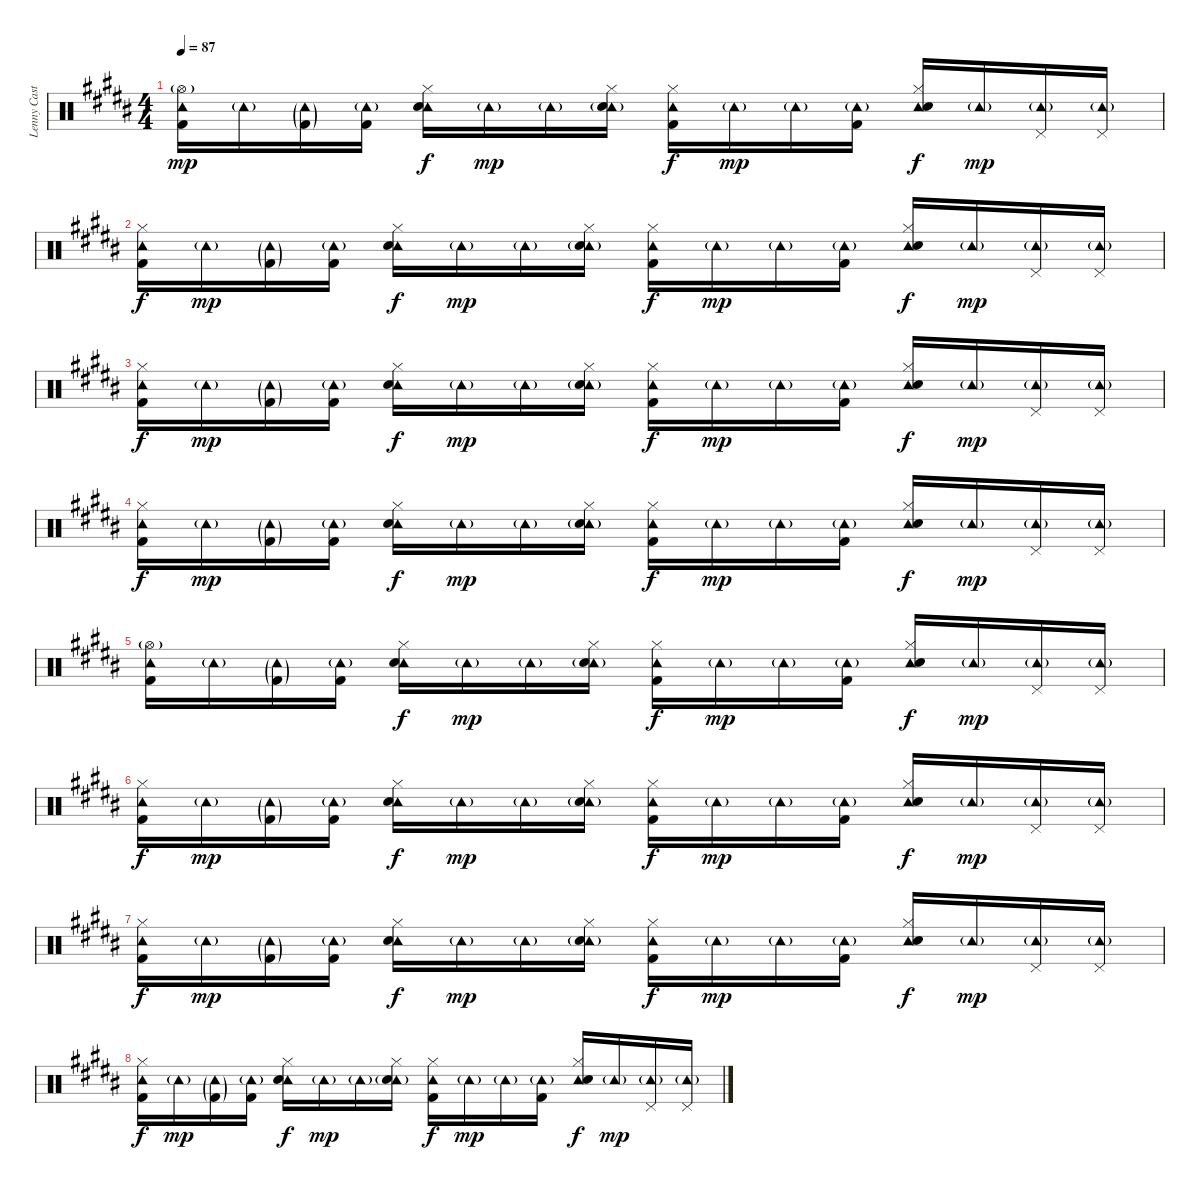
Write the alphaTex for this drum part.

\track ("Lenny Castro (Drums)" "Lenny Cast") {instrument percussion}
\staff {score}
\articulation defaults
\ts (4 4)
\tempo 87
\clef neutral
\ks b
("Hi-Hat (open)"{g} "Tambourine (hit)" "Kick (hit) 2").16{dy mp} "Tambourine (hit)"{g}.16 ("Tambourine (hit)"{g} "Kick (hit) 2"{g}).16 ("Tambourine (hit)"{g} "Kick (hit) 2").16 ("Hi-Hat (closed)" "Tambourine (hit)" "Electric Snare (hit)").16{dy f} "Tambourine (hit)"{g}.16{dy mp} "Tambourine (hit)"{g}.16 ("Hi-Hat (closed)" "Tambourine (hit)"{g} "Electric Snare (hit)"{g}).16 ("Hi-Hat (closed)" "Tambourine (hit)" "Kick (hit) 2").16{dy f} "Tambourine (hit)"{g}.16{dy mp} "Tambourine (hit)"{g}.16 ("Tambourine (hit)"{g} "Kick (hit) 2").16 ("Hi-Hat (closed)" "Tambourine (hit)" "Electric Snare (hit)").16{dy f} "Tambourine (hit)"{g}.16{dy mp} ("Pedal Hi-Hat (hit)" "Tambourine (hit)"{g}).16 ("Pedal Hi-Hat (hit)" "Tambourine (hit)"{g}).16 |
("Hi-Hat (closed)" "Tambourine (hit)" "Kick (hit) 2").16{dy f} "Tambourine (hit)"{g}.16{dy mp} ("Tambourine (hit)"{g} "Kick (hit) 2"{g}).16 ("Tambourine (hit)"{g} "Kick (hit) 2").16 ("Hi-Hat (closed)" "Tambourine (hit)" "Electric Snare (hit)").16{dy f} "Tambourine (hit)"{g}.16{dy mp} "Tambourine (hit)"{g}.16 ("Hi-Hat (closed)" "Tambourine (hit)"{g} "Electric Snare (hit)"{g}).16 ("Hi-Hat (closed)" "Tambourine (hit)" "Kick (hit) 2").16{dy f} "Tambourine (hit)"{g}.16{dy mp} "Tambourine (hit)"{g}.16 ("Tambourine (hit)"{g} "Kick (hit) 2").16 ("Hi-Hat (closed)" "Tambourine (hit)" "Electric Snare (hit)").16{dy f} "Tambourine (hit)"{g}.16{dy mp} ("Pedal Hi-Hat (hit)" "Tambourine (hit)"{g}).16 ("Pedal Hi-Hat (hit)" "Tambourine (hit)"{g}).16 |
("Hi-Hat (closed)" "Tambourine (hit)" "Kick (hit) 2").16{dy f} "Tambourine (hit)"{g}.16{dy mp} ("Tambourine (hit)"{g} "Kick (hit) 2"{g}).16 ("Tambourine (hit)"{g} "Kick (hit) 2").16 ("Hi-Hat (closed)" "Tambourine (hit)" "Electric Snare (hit)").16{dy f} "Tambourine (hit)"{g}.16{dy mp} "Tambourine (hit)"{g}.16 ("Hi-Hat (closed)" "Tambourine (hit)"{g} "Electric Snare (hit)"{g}).16 ("Hi-Hat (closed)" "Tambourine (hit)" "Kick (hit) 2").16{dy f} "Tambourine (hit)"{g}.16{dy mp} "Tambourine (hit)"{g}.16 ("Tambourine (hit)"{g} "Kick (hit) 2").16 ("Hi-Hat (closed)" "Tambourine (hit)" "Electric Snare (hit)").16{dy f} "Tambourine (hit)"{g}.16{dy mp} ("Pedal Hi-Hat (hit)" "Tambourine (hit)"{g}).16 ("Pedal Hi-Hat (hit)" "Tambourine (hit)"{g}).16 |
("Hi-Hat (closed)" "Tambourine (hit)" "Kick (hit) 2").16{dy f} "Tambourine (hit)"{g}.16{dy mp} ("Tambourine (hit)"{g} "Kick (hit) 2"{g}).16 ("Tambourine (hit)"{g} "Kick (hit) 2").16 ("Hi-Hat (closed)" "Tambourine (hit)" "Electric Snare (hit)").16{dy f} "Tambourine (hit)"{g}.16{dy mp} "Tambourine (hit)"{g}.16 ("Hi-Hat (closed)" "Tambourine (hit)"{g} "Electric Snare (hit)"{g}).16 ("Hi-Hat (closed)" "Tambourine (hit)" "Kick (hit) 2").16{dy f} "Tambourine (hit)"{g}.16{dy mp} "Tambourine (hit)"{g}.16 ("Tambourine (hit)"{g} "Kick (hit) 2").16 ("Hi-Hat (closed)" "Tambourine (hit)" "Electric Snare (hit)").16{dy f} "Tambourine (hit)"{g}.16{dy mp} ("Pedal Hi-Hat (hit)" "Tambourine (hit)"{g}).16 ("Pedal Hi-Hat (hit)" "Tambourine (hit)"{g}).16 |
("Hi-Hat (open)"{g} "Tambourine (hit)" "Kick (hit) 2").16 "Tambourine (hit)"{g}.16 ("Tambourine (hit)"{g} "Kick (hit) 2"{g}).16 ("Tambourine (hit)"{g} "Kick (hit) 2").16 ("Hi-Hat (closed)" "Tambourine (hit)" "Electric Snare (hit)").16{dy f} "Tambourine (hit)"{g}.16{dy mp} "Tambourine (hit)"{g}.16 ("Hi-Hat (closed)" "Tambourine (hit)"{g} "Electric Snare (hit)"{g}).16 ("Hi-Hat (closed)" "Tambourine (hit)" "Kick (hit) 2").16{dy f} "Tambourine (hit)"{g}.16{dy mp} "Tambourine (hit)"{g}.16 ("Tambourine (hit)"{g} "Kick (hit) 2").16 ("Hi-Hat (closed)" "Tambourine (hit)" "Electric Snare (hit)").16{dy f} "Tambourine (hit)"{g}.16{dy mp} ("Pedal Hi-Hat (hit)" "Tambourine (hit)"{g}).16 ("Pedal Hi-Hat (hit)" "Tambourine (hit)"{g}).16 |
("Hi-Hat (closed)" "Tambourine (hit)" "Kick (hit) 2").16{dy f} "Tambourine (hit)"{g}.16{dy mp} ("Tambourine (hit)"{g} "Kick (hit) 2"{g}).16 ("Tambourine (hit)"{g} "Kick (hit) 2").16 ("Hi-Hat (closed)" "Tambourine (hit)" "Electric Snare (hit)").16{dy f} "Tambourine (hit)"{g}.16{dy mp} "Tambourine (hit)"{g}.16 ("Hi-Hat (closed)" "Tambourine (hit)"{g} "Electric Snare (hit)"{g}).16 ("Hi-Hat (closed)" "Tambourine (hit)" "Kick (hit) 2").16{dy f} "Tambourine (hit)"{g}.16{dy mp} "Tambourine (hit)"{g}.16 ("Tambourine (hit)"{g} "Kick (hit) 2").16 ("Hi-Hat (closed)" "Tambourine (hit)" "Electric Snare (hit)").16{dy f} "Tambourine (hit)"{g}.16{dy mp} ("Pedal Hi-Hat (hit)" "Tambourine (hit)"{g}).16 ("Pedal Hi-Hat (hit)" "Tambourine (hit)"{g}).16 |
("Hi-Hat (closed)" "Tambourine (hit)" "Kick (hit) 2").16{dy f} "Tambourine (hit)"{g}.16{dy mp} ("Tambourine (hit)"{g} "Kick (hit) 2"{g}).16 ("Tambourine (hit)"{g} "Kick (hit) 2").16 ("Hi-Hat (closed)" "Tambourine (hit)" "Electric Snare (hit)").16{dy f} "Tambourine (hit)"{g}.16{dy mp} "Tambourine (hit)"{g}.16 ("Hi-Hat (closed)" "Tambourine (hit)"{g} "Electric Snare (hit)"{g}).16 ("Hi-Hat (closed)" "Tambourine (hit)" "Kick (hit) 2").16{dy f} "Tambourine (hit)"{g}.16{dy mp} "Tambourine (hit)"{g}.16 ("Tambourine (hit)"{g} "Kick (hit) 2").16 ("Hi-Hat (closed)" "Tambourine (hit)" "Electric Snare (hit)").16{dy f} "Tambourine (hit)"{g}.16{dy mp} ("Pedal Hi-Hat (hit)" "Tambourine (hit)"{g}).16 ("Pedal Hi-Hat (hit)" "Tambourine (hit)"{g}).16 |
("Hi-Hat (closed)" "Tambourine (hit)" "Kick (hit) 2").16{dy f} "Tambourine (hit)"{g}.16{dy mp} ("Tambourine (hit)"{g} "Kick (hit) 2"{g}).16 ("Tambourine (hit)"{g} "Kick (hit) 2").16 ("Hi-Hat (closed)" "Tambourine (hit)" "Electric Snare (hit)").16{dy f} "Tambourine (hit)"{g}.16{dy mp} "Tambourine (hit)"{g}.16 ("Hi-Hat (closed)" "Tambourine (hit)"{g} "Electric Snare (hit)"{g}).16 ("Hi-Hat (closed)" "Tambourine (hit)" "Kick (hit) 2").16{dy f} "Tambourine (hit)"{g}.16{dy mp} "Tambourine (hit)"{g}.16 ("Tambourine (hit)"{g} "Kick (hit) 2").16 ("Hi-Hat (closed)" "Tambourine (hit)" "Electric Snare (hit)").16{dy f} "Tambourine (hit)"{g}.16{dy mp} ("Pedal Hi-Hat (hit)" "Tambourine (hit)"{g}).16 ("Pedal Hi-Hat (hit)" "Tambourine (hit)"{g}).16
